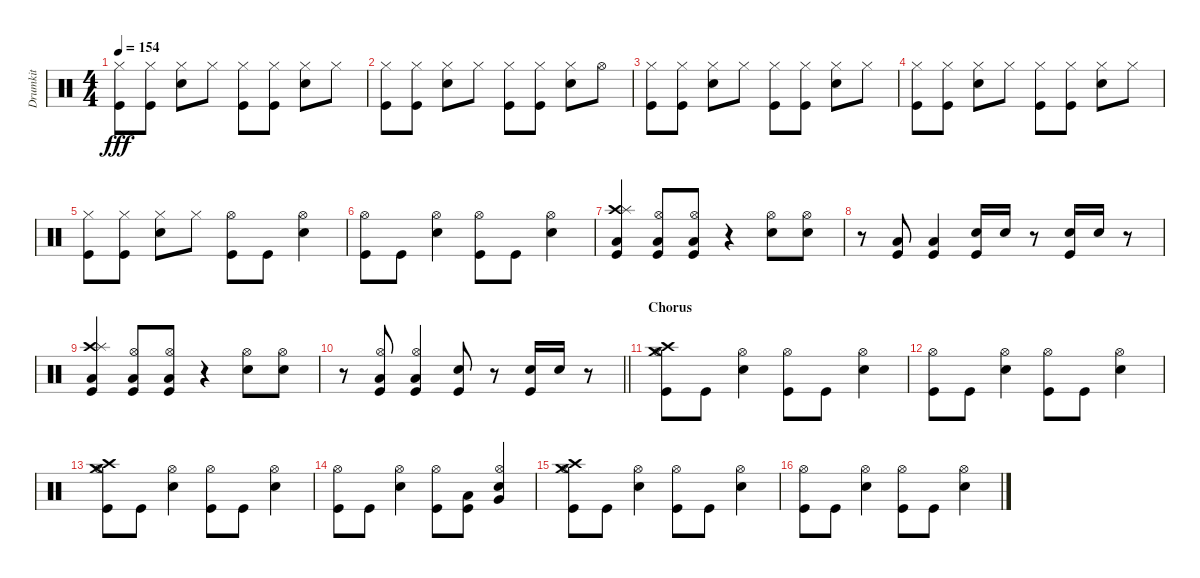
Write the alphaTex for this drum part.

\track ("Drumkit" "Drumkit") {instrument percussion}
\staff {score}
\articulation defaults
\ts (4 4)
\tempo 154
\clef neutral
\ks c
("Hi-Hat (closed)" "Kick (hit)").8{dy fff} ("Hi-Hat (closed)" "Kick (hit)").8 ("Hi-Hat (closed)" "Snare (hit) 2").8 "Hi-Hat (closed)".8 ("Hi-Hat (closed)" "Kick (hit)").8 ("Hi-Hat (closed)" "Kick (hit)").8 ("Hi-Hat (closed)" "Snare (hit) 2").8 "Hi-Hat (closed)".8 |
("Hi-Hat (closed)" "Kick (hit)").8 ("Hi-Hat (closed)" "Kick (hit)").8 ("Hi-Hat (closed)" "Snare (hit) 2").8 "Hi-Hat (closed)".8 ("Hi-Hat (closed)" "Kick (hit)").8 ("Hi-Hat (closed)" "Kick (hit)").8 ("Hi-Hat (closed)" "Snare (hit) 2").8 "Hi-Hat (open)".8 |
("Hi-Hat (closed)" "Kick (hit)").8 ("Hi-Hat (closed)" "Kick (hit)").8 ("Hi-Hat (closed)" "Snare (hit) 2").8 "Hi-Hat (closed)".8 ("Hi-Hat (closed)" "Kick (hit)").8 ("Hi-Hat (closed)" "Kick (hit)").8 ("Hi-Hat (closed)" "Snare (hit) 2").8 "Hi-Hat (closed)".8 |
("Hi-Hat (closed)" "Kick (hit)").8 ("Hi-Hat (closed)" "Kick (hit)").8 ("Hi-Hat (closed)" "Snare (hit) 2").8 "Hi-Hat (closed)".8 ("Hi-Hat (closed)" "Kick (hit)").8 ("Hi-Hat (closed)" "Kick (hit)").8 ("Hi-Hat (closed)" "Snare (hit) 2").8 "Hi-Hat (closed)".8 |
("Hi-Hat (closed)" "Kick (hit)").8 ("Hi-Hat (closed)" "Kick (hit)").8 ("Hi-Hat (closed)" "Snare (hit) 2").8 "Hi-Hat (closed)".8 ("Hi-Hat (open)" "Kick (hit)").8 "Kick (hit)".8 ("Hi-Hat (open)" "Snare (hit) 2").4 |
("Hi-Hat (open)" "Kick (hit)").8 "Kick (hit)".8 ("Hi-Hat (open)" "Snare (hit) 2").4 ("Hi-Hat (open)" "Kick (hit)").8 "Kick (hit)".8 ("Hi-Hat (open)" "Snare (hit) 2").4 |
("Crash high (hit)" "Splash (hit)" "Low Tom (hit)" "Kick (hit)").4 ("Hi-Hat (open)" "Low Tom (hit)" "Kick (hit)").8 ("Hi-Hat (open)" "Low Tom (hit)" "Kick (hit)").8 r.4 ("Hi-Hat (open)" "Snare (hit) 2").8 ("Hi-Hat (open)" "Snare (hit) 2").8 |
r.8 ("Low Tom (hit)" "Kick (hit)").8 ("Low Tom (hit)" "Kick (hit)").4 ("Snare (hit) 2" "Kick (hit)").16 "Snare (hit) 2".16 r.8 ("Snare (hit) 2" "Kick (hit)").16 "Snare (hit) 2".16 r.8 |
("Crash high (hit)" "Splash (hit)" "Low Tom (hit)" "Kick (hit)").4 ("Hi-Hat (open)" "Low Tom (hit)" "Kick (hit)").8 ("Hi-Hat (open)" "Low Tom (hit)" "Kick (hit)").8 r.4 ("Hi-Hat (open)" "Snare (hit) 2").8 ("Hi-Hat (open)" "Snare (hit) 2").8 |
\barLineRight lightlight
r.8 ("Hi-Hat (open)" "Low Tom (hit)" "Kick (hit)").8 ("Hi-Hat (open)" "Low Tom (hit)" "Kick (hit)").4 ("Snare (hit) 2" "Kick (hit)").8 r.8 ("Snare (hit) 2" "Kick (hit)").16 "Snare (hit) 2".16 r.8 |
\section ("" "Chorus ")
("Crash high (hit)" "Hi-Hat (open)" "Crash medium (hit)" "Kick (hit)").8 "Kick (hit)".8 ("Hi-Hat (open)" "Snare (hit) 2").4 ("Hi-Hat (open)" "Kick (hit)").8 "Kick (hit)".8 ("Hi-Hat (open)" "Snare (hit) 2").4 |
("Hi-Hat (open)" "Kick (hit)").8 "Kick (hit)".8 ("Hi-Hat (open)" "Snare (hit) 2").4 ("Hi-Hat (open)" "Kick (hit)").8 "Kick (hit)".8 ("Hi-Hat (open)" "Snare (hit) 2").4 |
("Crash high (hit)" "Hi-Hat (open)" "Crash medium (hit)" "Kick (hit)").8 "Kick (hit)".8 ("Hi-Hat (open)" "Snare (hit) 2").4 ("Hi-Hat (open)" "Kick (hit)").8 "Kick (hit)".8 ("Hi-Hat (open)" "Snare (hit) 2").4 |
("Hi-Hat (open)" "Kick (hit)").8 "Kick (hit)".8 ("Hi-Hat (open)" "Snare (hit) 2").4 ("Hi-Hat (open)" "Kick (hit)").8 ("Low Tom (hit)" "Kick (hit)").8 ("Hi-Hat (open)" "Very Low Tom (hit)" "Snare (hit) 2").4 |
("Crash high (hit)" "Hi-Hat (open)" "Crash medium (hit)" "Kick (hit)").8 "Kick (hit)".8 ("Hi-Hat (open)" "Snare (hit) 2").4 ("Hi-Hat (open)" "Kick (hit)").8 "Kick (hit)".8 ("Hi-Hat (open)" "Snare (hit) 2").4 |
("Hi-Hat (open)" "Kick (hit)").8 "Kick (hit)".8 ("Hi-Hat (open)" "Snare (hit) 2").4 ("Hi-Hat (open)" "Kick (hit)").8 "Kick (hit)".8 ("Hi-Hat (open)" "Snare (hit) 2").4
